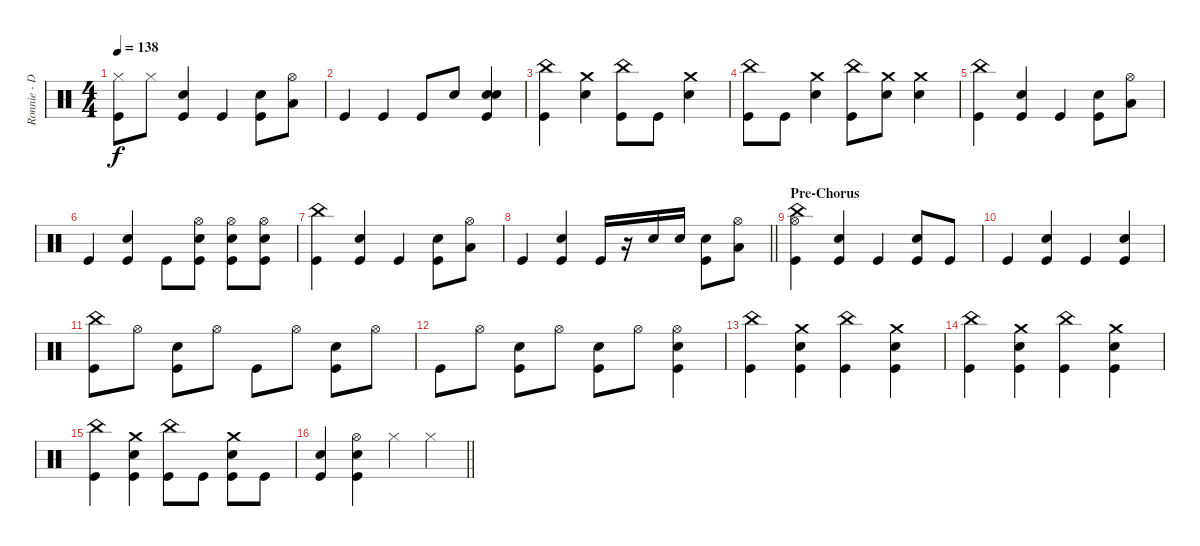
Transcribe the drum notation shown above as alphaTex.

\track ("Ronnie - Drums" "Ronnie - D") {instrument percussion}
\staff {score}
\articulation defaults
\ts (4 4)
\tempo 138
\clef neutral
\ks c
("Hi-Hat (closed)" "Kick (hit)").8{dy f} "Hi-Hat (closed)".8 ("Snare (hit) 2" "Kick (hit)").4 "Kick (hit)".4 ("Snare (hit) 2" "Kick (hit)").8 ("Hi-Hat (open)" "Low Tom (hit)").8 |
"Kick (hit)".4 "Kick (hit)".4 "Kick (hit)".8 "Snare (hit) 2".8 ("Snare (hit) 2" "Snare (hit) 2" "Kick (hit)").4 |
("China (hit)" "Kick (hit)").4 ("Crash medium (hit)" "Snare (hit) 2").4 ("China (hit)" "Kick (hit)").8 "Kick (hit)".8 ("Crash medium (hit)" "Snare (hit) 2").4 |
("China (hit)" "Kick (hit)").8 "Kick (hit)".8 ("Crash medium (hit)" "Snare (hit) 2").4 ("China (hit)" "Kick (hit)").8 ("Crash medium (hit)" "Snare (hit) 2").8 ("Crash medium (hit)" "Snare (hit) 2").4 |
("China (hit)" "Kick (hit)").4 ("Snare (hit) 2" "Kick (hit)").4 "Kick (hit)".4 ("Snare (hit) 2" "Kick (hit)").8 ("Hi-Hat (open)" "Low Tom (hit)").8 |
"Kick (hit)".4 ("Snare (hit) 2" "Kick (hit)").4 "Kick (hit)".8 ("Hi-Hat (open)" "Snare (hit) 2" "Kick (hit)").8 ("Hi-Hat (open)" "Snare (hit) 2" "Kick (hit)").8 ("Hi-Hat (open)" "Snare (hit) 2" "Kick (hit)").8 |
("China (hit)" "Kick (hit)").4 ("Snare (hit) 2" "Kick (hit)").4 "Kick (hit)".4 ("Snare (hit) 2" "Kick (hit)").8 ("Hi-Hat (open)" "Low Tom (hit)").8 |
\barLineRight lightlight "Kick (hit)".4
("Snare (hit) 2" "Kick (hit)").4 "Kick (hit)".16 r.16 "Snare (hit) 2".16 "Snare (hit) 2".16 ("Snare (hit) 2" "Kick (hit)").8 ("Hi-Hat (open)" "Low Tom (hit)").8 |
\section ("" "Pre-Chorus")
("China (hit)" "Hi-Hat (open)" "Kick (hit)").4 ("Snare (hit) 2" "Kick (hit)").4 "Kick (hit)".4 ("Snare (hit) 2" "Kick (hit)").8 "Kick (hit)".8 |
"Kick (hit)".4 ("Snare (hit) 2" "Kick (hit)").4 "Kick (hit)".4 ("Snare (hit) 2" "Kick (hit)").4 |
("China (hit)" "Kick (hit)").8 "Hi-Hat (open)".8 ("Snare (hit) 2" "Kick (hit)").8 "Hi-Hat (open)".8 "Kick (hit)".8 "Hi-Hat (open)".8 ("Snare (hit) 2" "Kick (hit)").8 "Hi-Hat (open)".8 |
"Kick (hit)".8 "Hi-Hat (open)".8 ("Snare (hit) 2" "Kick (hit)").8 "Hi-Hat (open)".8 ("Snare (hit) 2" "Kick (hit)").8 "Hi-Hat (open)".8 ("Hi-Hat (open)" "Snare (hit) 2" "Kick (hit)").4 |
("China (hit)" "Kick (hit)").4 ("Crash medium (hit)" "Snare (hit) 2" "Kick (hit)").4 ("China (hit)" "Kick (hit)").4 ("Crash medium (hit)" "Snare (hit) 2" "Kick (hit)").4 |
("China (hit)" "Kick (hit)").4 ("Crash medium (hit)" "Snare (hit) 2" "Kick (hit)").4 ("China (hit)" "Kick (hit)").4 ("Crash medium (hit)" "Snare (hit) 2" "Kick (hit)").4 |
("China (hit)" "Kick (hit)").4 ("Crash medium (hit)" "Snare (hit) 2" "Kick (hit)").4 ("China (hit)" "Kick (hit)").8 "Kick (hit)".8 ("Crash medium (hit)" "Snare (hit) 2" "Kick (hit)").8 "Kick (hit)".8 |
\barLineRight lightlight
("Snare (hit) 2" "Kick (hit)").4 ("Hi-Hat (open)" "Snare (hit) 2" "Kick (hit)").4 "Hi-Hat (closed)".4 "Hi-Hat (closed)".4
